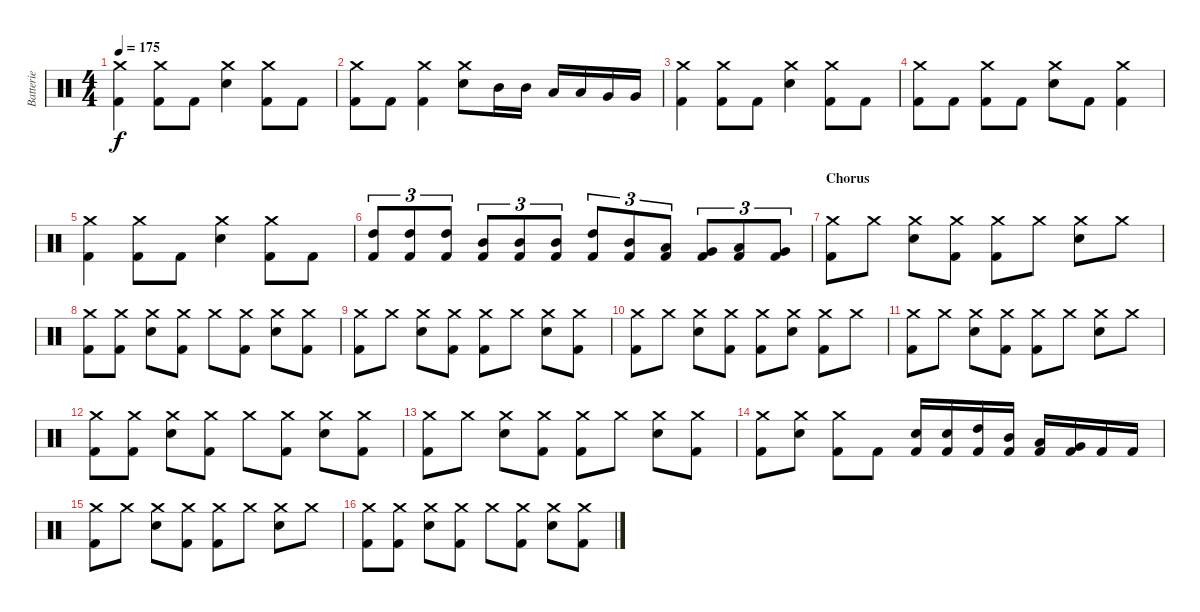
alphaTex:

\track ("Batterie" "Batterie") {instrument percussion}
\staff {score}
\articulation defaults
\ts (4 4)
\tempo 175
\clef neutral
\ks c
("Crash medium (hit)" "Kick (hit) 2").4{dy f} ("Crash medium (hit)" "Kick (hit) 2").8 "Kick (hit) 2".8 ("Crash medium (hit)" "Electric Snare (hit)").4 ("Crash medium (hit)" "Kick (hit) 2").8 "Kick (hit) 2".8 |
("Crash medium (hit)" "Kick (hit) 2").8 "Kick (hit) 2".8 ("Crash medium (hit)" "Kick (hit) 2").4 ("Crash medium (hit)" "Electric Snare (hit)").8 "Mid Tom (hit)".16 "Mid Tom (hit)".16 "Low Tom (hit)".16 "Low Tom (hit)".16 "Very Low Tom (hit)".16 "Very Low Tom (hit)".16 |
("Crash medium (hit)" "Kick (hit) 2").4 ("Crash medium (hit)" "Kick (hit) 2").8 "Kick (hit) 2".8 ("Crash medium (hit)" "Electric Snare (hit)").4 ("Crash medium (hit)" "Kick (hit) 2").8 "Kick (hit) 2".8 |
("Crash medium (hit)" "Kick (hit) 2").8 "Kick (hit) 2".8 ("Crash medium (hit)" "Kick (hit) 2").8 "Kick (hit) 2".8 ("Crash medium (hit)" "Electric Snare (hit)").8 "Kick (hit) 2".8 ("Crash medium (hit)" "Kick (hit) 2").4 |
("Crash medium (hit)" "Kick (hit) 2").4 ("Crash medium (hit)" "Kick (hit) 2").8 "Kick (hit) 2".8 ("Crash medium (hit)" "Electric Snare (hit)").4 ("Crash medium (hit)" "Kick (hit) 2").8 "Kick (hit) 2".8 |
("High Tom (hit)" "Kick (hit) 2").8{tu (3 2)} ("High Tom (hit)" "Kick (hit) 2").8{tu (3 2)} ("High Tom (hit)" "Kick (hit) 2").8{tu (3 2)} ("Mid Tom (hit)" "Kick (hit) 2").8{tu (3 2)} ("Mid Tom (hit)" "Kick (hit) 2").8{tu (3 2)} ("Mid Tom (hit)" "Kick (hit) 2").8{tu (3 2)} ("High Tom (hit)" "Kick (hit) 2").8{tu (3 2)} ("Mid Tom (hit)" "Kick (hit) 2").8{tu (3 2)} ("Low Tom (hit)" "Kick (hit) 2").8{tu (3 2)} ("Very Low Tom (hit)" "Kick (hit) 2").8{tu (3 2)} ("Low Tom (hit)" "Kick (hit) 2").8{tu (3 2)} ("Very Low Tom (hit)" "Kick (hit) 2").8{tu (3 2)} |
\section ("" "Chorus")
("Crash medium (hit)" "Kick (hit) 2").8 "Crash medium (hit)".8 ("Crash medium (hit)" "Electric Snare (hit)").8 ("Crash medium (hit)" "Kick (hit) 2").8 ("Crash medium (hit)" "Kick (hit) 2").8 "Crash medium (hit)".8 ("Crash medium (hit)" "Electric Snare (hit)").8 "Crash medium (hit)".8 |
("Crash medium (hit)" "Kick (hit) 2").8 ("Crash medium (hit)" "Kick (hit) 2").8 ("Crash medium (hit)" "Electric Snare (hit)").8 ("Crash medium (hit)" "Kick (hit) 2").8 "Crash medium (hit)".8 ("Crash medium (hit)" "Kick (hit) 2").8 ("Crash medium (hit)" "Electric Snare (hit)").8 ("Crash medium (hit)" "Kick (hit) 2").8 |
("Crash medium (hit)" "Kick (hit) 2").8 "Crash medium (hit)".8 ("Crash medium (hit)" "Electric Snare (hit)").8 ("Crash medium (hit)" "Kick (hit) 2").8 ("Crash medium (hit)" "Kick (hit) 2").8 "Crash medium (hit)".8 ("Crash medium (hit)" "Electric Snare (hit)").8 ("Crash medium (hit)" "Kick (hit) 2").8 |
("Crash medium (hit)" "Kick (hit) 2").8 "Crash medium (hit)".8 ("Crash medium (hit)" "Electric Snare (hit)").8 ("Crash medium (hit)" "Kick (hit) 2").8 ("Crash medium (hit)" "Kick (hit) 2").8 ("Crash medium (hit)" "Electric Snare (hit)").8 ("Crash medium (hit)" "Kick (hit) 2").8 "Crash medium (hit)".8 |
("Crash medium (hit)" "Kick (hit) 2").8 "Crash medium (hit)".8 ("Crash medium (hit)" "Electric Snare (hit)").8 ("Crash medium (hit)" "Kick (hit) 2").8 ("Crash medium (hit)" "Kick (hit) 2").8 "Crash medium (hit)".8 ("Crash medium (hit)" "Electric Snare (hit)").8 "Crash medium (hit)".8 |
("Crash medium (hit)" "Kick (hit) 2").8 ("Crash medium (hit)" "Kick (hit) 2").8 ("Crash medium (hit)" "Electric Snare (hit)").8 ("Crash medium (hit)" "Kick (hit) 2").8 "Crash medium (hit)".8 ("Crash medium (hit)" "Kick (hit) 2").8 ("Crash medium (hit)" "Electric Snare (hit)").8 ("Crash medium (hit)" "Kick (hit) 2").8 |
("Crash medium (hit)" "Kick (hit) 2").8 "Crash medium (hit)".8 ("Crash medium (hit)" "Electric Snare (hit)").8 ("Crash medium (hit)" "Kick (hit) 2").8 ("Crash medium (hit)" "Kick (hit) 2").8 "Crash medium (hit)".8 ("Crash medium (hit)" "Electric Snare (hit)").8 ("Crash medium (hit)" "Kick (hit) 2").8 |
("Crash medium (hit)" "Kick (hit) 2").8 ("Crash medium (hit)" "Electric Snare (hit)").8 ("Crash medium (hit)" "Kick (hit) 2").8 "Kick (hit) 2".8 ("Electric Snare (hit)" "Kick (hit) 2").16 ("Electric Snare (hit)" "Kick (hit) 2").16 ("High Tom (hit)" "Kick (hit) 2").16 ("Mid Tom (hit)" "Kick (hit) 2").16 ("Low Tom (hit)" "Kick (hit) 2").16 ("Very Low Tom (hit)" "Kick (hit) 2").16 "Kick (hit) 2".16 "Kick (hit) 2".16 |
("Crash medium (hit)" "Kick (hit) 2").8 "Crash medium (hit)".8 ("Crash medium (hit)" "Electric Snare (hit)").8 ("Crash medium (hit)" "Kick (hit) 2").8 ("Crash medium (hit)" "Kick (hit) 2").8 "Crash medium (hit)".8 ("Crash medium (hit)" "Electric Snare (hit)").8 "Crash medium (hit)".8 |
("Crash medium (hit)" "Kick (hit) 2").8 ("Crash medium (hit)" "Kick (hit) 2").8 ("Crash medium (hit)" "Electric Snare (hit)").8 ("Crash medium (hit)" "Kick (hit) 2").8 "Crash medium (hit)".8 ("Crash medium (hit)" "Kick (hit) 2").8 ("Crash medium (hit)" "Electric Snare (hit)").8 ("Crash medium (hit)" "Kick (hit) 2").8
